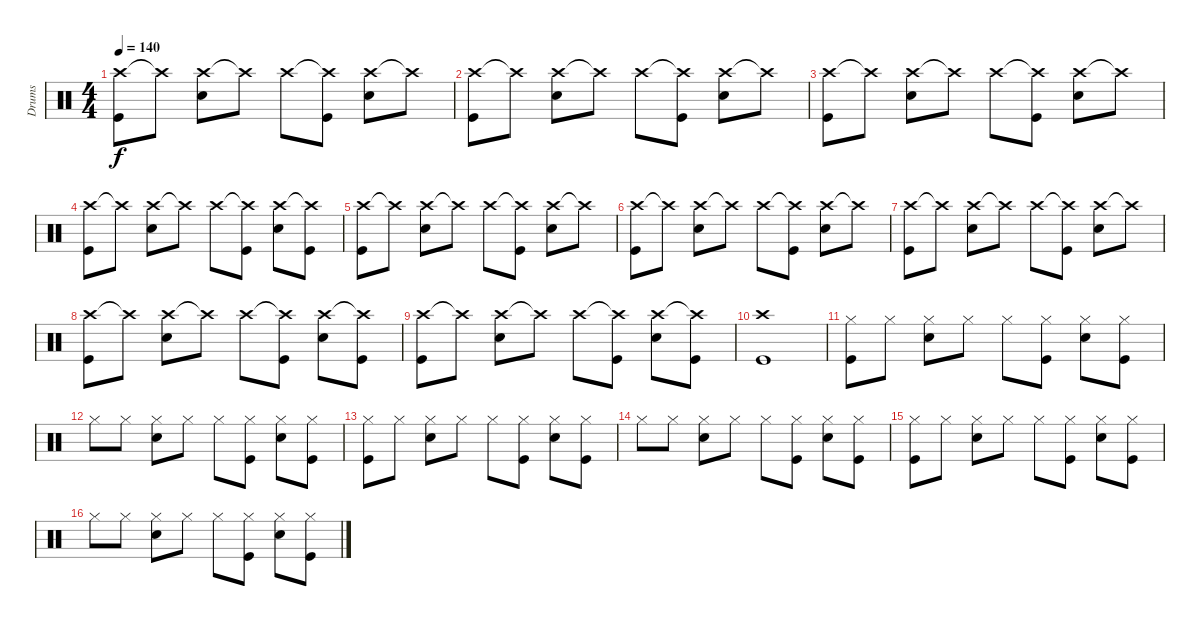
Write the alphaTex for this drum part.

\track ("Drums" "Drums") {instrument percussion}
\staff {score}
\articulation defaults
\ts (4 4)
\tempo 140
\clef neutral
\ks c
("Crash high (hit)" "Kick (hit)").8{dy f} "Crash high (hit)"{t}.8 ("Crash high (hit)" "Snare (hit) 2").8 "Crash high (hit)"{t}.8 "Crash high (hit)".8 ("Crash high (hit)"{t} "Kick (hit)").8 ("Crash high (hit)" "Snare (hit) 2").8 "Crash high (hit)"{t}.8 |
("Crash high (hit)" "Kick (hit)").8 "Crash high (hit)"{t}.8 ("Crash high (hit)" "Snare (hit) 2").8 "Crash high (hit)"{t}.8 "Crash high (hit)".8 ("Crash high (hit)"{t} "Kick (hit)").8 ("Crash high (hit)" "Snare (hit) 2").8 "Crash high (hit)"{t}.8 |
("Crash high (hit)" "Kick (hit)").8 "Crash high (hit)"{t}.8 ("Crash high (hit)" "Snare (hit) 2").8 "Crash high (hit)"{t}.8 "Crash high (hit)".8 ("Crash high (hit)"{t} "Kick (hit)").8 ("Crash high (hit)" "Snare (hit) 2").8 "Crash high (hit)"{t}.8 |
("Crash high (hit)" "Kick (hit)").8 "Crash high (hit)"{t}.8 ("Crash high (hit)" "Snare (hit) 2").8 "Crash high (hit)"{t}.8 "Crash high (hit)".8 ("Crash high (hit)"{t} "Kick (hit)").8 ("Crash high (hit)" "Snare (hit) 2").8 ("Crash high (hit)"{t} "Kick (hit)").8 |
("Crash high (hit)" "Kick (hit)").8 "Crash high (hit)"{t}.8 ("Crash high (hit)" "Snare (hit) 2").8 "Crash high (hit)"{t}.8 "Crash high (hit)".8 ("Crash high (hit)"{t} "Kick (hit)").8 ("Crash high (hit)" "Snare (hit) 2").8 "Crash high (hit)"{t}.8 |
("Crash high (hit)" "Kick (hit)").8 "Crash high (hit)"{t}.8 ("Crash high (hit)" "Snare (hit) 2").8 "Crash high (hit)"{t}.8 "Crash high (hit)".8 ("Crash high (hit)"{t} "Kick (hit)").8 ("Crash high (hit)" "Snare (hit) 2").8 "Crash high (hit)"{t}.8 |
("Crash high (hit)" "Kick (hit)").8 "Crash high (hit)"{t}.8 ("Crash high (hit)" "Snare (hit) 2").8 "Crash high (hit)"{t}.8 "Crash high (hit)".8 ("Crash high (hit)"{t} "Kick (hit)").8 ("Crash high (hit)" "Snare (hit) 2").8 "Crash high (hit)"{t}.8 |
("Crash high (hit)" "Kick (hit)").8 "Crash high (hit)"{t}.8 ("Crash high (hit)" "Snare (hit) 2").8 "Crash high (hit)"{t}.8 "Crash high (hit)".8 ("Crash high (hit)"{t} "Kick (hit)").8 ("Crash high (hit)" "Snare (hit) 2").8 ("Crash high (hit)"{t} "Kick (hit)").8 |
("Crash high (hit)" "Kick (hit)").8 "Crash high (hit)"{t}.8 ("Crash high (hit)" "Snare (hit) 2").8 "Crash high (hit)"{t}.8 "Crash high (hit)".8 ("Crash high (hit)"{t} "Kick (hit)").8 ("Crash high (hit)" "Snare (hit) 2").8 ("Crash high (hit)"{t} "Kick (hit)").8 |
("Crash high (hit)" "Kick (hit)").1 |
("Hi-Hat (closed)" "Kick (hit)").8 "Hi-Hat (closed)".8 ("Hi-Hat (closed)" "Electric Snare (hit)").8 "Hi-Hat (closed)".8 "Hi-Hat (closed)".8 ("Hi-Hat (closed)" "Kick (hit)").8 ("Hi-Hat (closed)" "Electric Snare (hit)").8 ("Hi-Hat (closed)" "Kick (hit)").8 |
"Hi-Hat (closed)".8 "Hi-Hat (closed)".8 ("Hi-Hat (closed)" "Electric Snare (hit)").8 "Hi-Hat (closed)".8 "Hi-Hat (closed)".8 ("Hi-Hat (closed)" "Kick (hit)").8 ("Hi-Hat (closed)" "Electric Snare (hit)").8 ("Hi-Hat (closed)" "Kick (hit)").8 |
("Hi-Hat (closed)" "Kick (hit)").8 "Hi-Hat (closed)".8 ("Hi-Hat (closed)" "Electric Snare (hit)").8 "Hi-Hat (closed)".8 "Hi-Hat (closed)".8 ("Hi-Hat (closed)" "Kick (hit)").8 ("Hi-Hat (closed)" "Electric Snare (hit)").8 ("Hi-Hat (closed)" "Kick (hit)").8 |
"Hi-Hat (closed)".8 "Hi-Hat (closed)".8 ("Hi-Hat (closed)" "Electric Snare (hit)").8 "Hi-Hat (closed)".8 "Hi-Hat (closed)".8 ("Hi-Hat (closed)" "Kick (hit)").8 ("Hi-Hat (closed)" "Electric Snare (hit)").8 ("Hi-Hat (closed)" "Kick (hit)").8 |
("Hi-Hat (closed)" "Kick (hit)").8 "Hi-Hat (closed)".8 ("Hi-Hat (closed)" "Electric Snare (hit)").8 "Hi-Hat (closed)".8 "Hi-Hat (closed)".8 ("Hi-Hat (closed)" "Kick (hit)").8 ("Hi-Hat (closed)" "Electric Snare (hit)").8 ("Hi-Hat (closed)" "Kick (hit)").8 |
"Hi-Hat (closed)".8 "Hi-Hat (closed)".8 ("Hi-Hat (closed)" "Electric Snare (hit)").8 "Hi-Hat (closed)".8 "Hi-Hat (closed)".8 ("Hi-Hat (closed)" "Kick (hit)").8 ("Hi-Hat (closed)" "Electric Snare (hit)").8 ("Hi-Hat (closed)" "Kick (hit)").8
